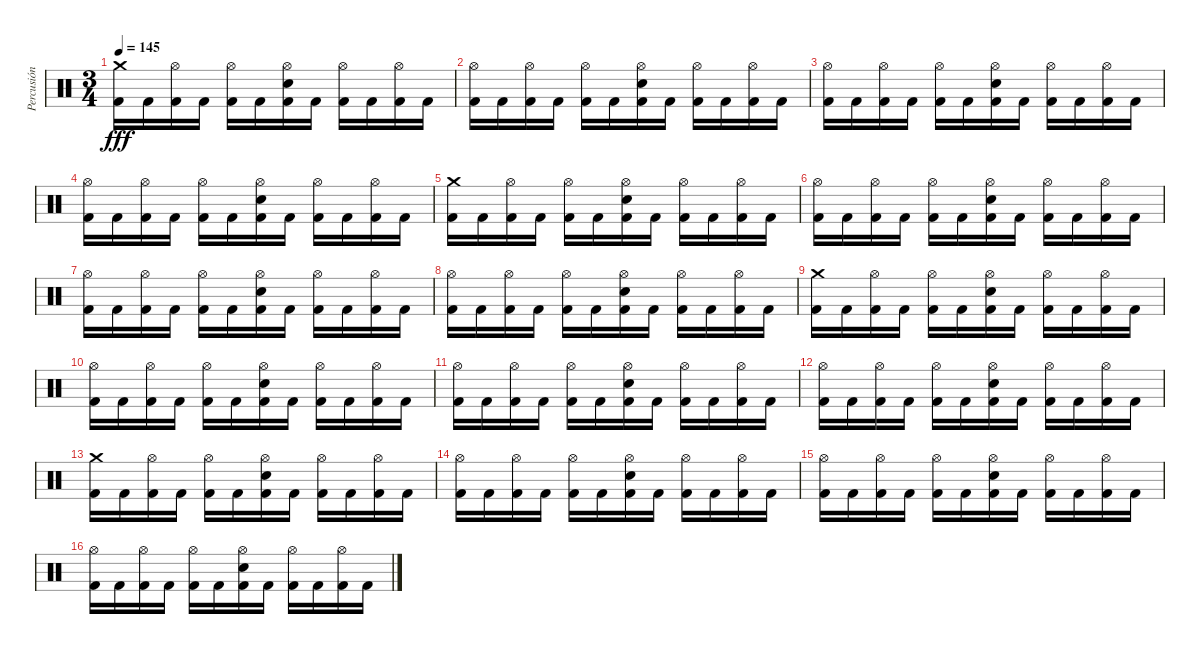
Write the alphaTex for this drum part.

\track ("Percusión" "Percusión") {instrument percussion}
\staff {score}
\articulation defaults
\ts (3 4)
\tempo 145
\clef neutral
\ks c
("Crash medium (hit)" "Kick (hit) 2").16{dy fff} "Kick (hit) 2".16 ("Hi-Hat (open)" "Kick (hit) 2").16 "Kick (hit) 2".16 ("Hi-Hat (open)" "Kick (hit) 2").16 "Kick (hit) 2".16 ("Hi-Hat (open)" "Snare (hit) 2" "Kick (hit) 2").16 "Kick (hit) 2".16 ("Hi-Hat (open)" "Kick (hit) 2").16 "Kick (hit) 2".16 ("Hi-Hat (open)" "Kick (hit) 2").16 "Kick (hit) 2".16 |
("Hi-Hat (open)" "Kick (hit) 2").16 "Kick (hit) 2".16 ("Hi-Hat (open)" "Kick (hit) 2").16 "Kick (hit) 2".16 ("Hi-Hat (open)" "Kick (hit) 2").16 "Kick (hit) 2".16 ("Hi-Hat (open)" "Snare (hit) 2" "Kick (hit) 2").16 "Kick (hit) 2".16 ("Hi-Hat (open)" "Kick (hit) 2").16 "Kick (hit) 2".16 ("Hi-Hat (open)" "Kick (hit) 2").16 "Kick (hit) 2".16 |
("Hi-Hat (open)" "Kick (hit) 2").16 "Kick (hit) 2".16 ("Hi-Hat (open)" "Kick (hit) 2").16 "Kick (hit) 2".16 ("Hi-Hat (open)" "Kick (hit) 2").16 "Kick (hit) 2".16 ("Hi-Hat (open)" "Snare (hit) 2" "Kick (hit) 2").16 "Kick (hit) 2".16 ("Hi-Hat (open)" "Kick (hit) 2").16 "Kick (hit) 2".16 ("Hi-Hat (open)" "Kick (hit) 2").16 "Kick (hit) 2".16 |
("Hi-Hat (open)" "Kick (hit) 2").16 "Kick (hit) 2".16 ("Hi-Hat (open)" "Kick (hit) 2").16 "Kick (hit) 2".16 ("Hi-Hat (open)" "Kick (hit) 2").16 "Kick (hit) 2".16 ("Hi-Hat (open)" "Snare (hit) 2" "Kick (hit) 2").16 "Kick (hit) 2".16 ("Hi-Hat (open)" "Kick (hit) 2").16 "Kick (hit) 2".16 ("Hi-Hat (open)" "Kick (hit) 2").16 "Kick (hit) 2".16 |
("Crash medium (hit)" "Kick (hit) 2").16 "Kick (hit) 2".16 ("Hi-Hat (open)" "Kick (hit) 2").16 "Kick (hit) 2".16 ("Hi-Hat (open)" "Kick (hit) 2").16 "Kick (hit) 2".16 ("Hi-Hat (open)" "Snare (hit) 2" "Kick (hit) 2").16 "Kick (hit) 2".16 ("Hi-Hat (open)" "Kick (hit) 2").16 "Kick (hit) 2".16 ("Hi-Hat (open)" "Kick (hit) 2").16 "Kick (hit) 2".16 |
("Hi-Hat (open)" "Kick (hit) 2").16 "Kick (hit) 2".16 ("Hi-Hat (open)" "Kick (hit) 2").16 "Kick (hit) 2".16 ("Hi-Hat (open)" "Kick (hit) 2").16 "Kick (hit) 2".16 ("Hi-Hat (open)" "Snare (hit) 2" "Kick (hit) 2").16 "Kick (hit) 2".16 ("Hi-Hat (open)" "Kick (hit) 2").16 "Kick (hit) 2".16 ("Hi-Hat (open)" "Kick (hit) 2").16 "Kick (hit) 2".16 |
("Hi-Hat (open)" "Kick (hit) 2").16 "Kick (hit) 2".16 ("Hi-Hat (open)" "Kick (hit) 2").16 "Kick (hit) 2".16 ("Hi-Hat (open)" "Kick (hit) 2").16 "Kick (hit) 2".16 ("Hi-Hat (open)" "Snare (hit) 2" "Kick (hit) 2").16 "Kick (hit) 2".16 ("Hi-Hat (open)" "Kick (hit) 2").16 "Kick (hit) 2".16 ("Hi-Hat (open)" "Kick (hit) 2").16 "Kick (hit) 2".16 |
("Hi-Hat (open)" "Kick (hit) 2").16 "Kick (hit) 2".16 ("Hi-Hat (open)" "Kick (hit) 2").16 "Kick (hit) 2".16 ("Hi-Hat (open)" "Kick (hit) 2").16 "Kick (hit) 2".16 ("Hi-Hat (open)" "Snare (hit) 2" "Kick (hit) 2").16 "Kick (hit) 2".16 ("Hi-Hat (open)" "Kick (hit) 2").16 "Kick (hit) 2".16 ("Hi-Hat (open)" "Kick (hit) 2").16 "Kick (hit) 2".16 |
("Crash medium (hit)" "Kick (hit) 2").16 "Kick (hit) 2".16 ("Hi-Hat (open)" "Kick (hit) 2").16 "Kick (hit) 2".16 ("Hi-Hat (open)" "Kick (hit) 2").16 "Kick (hit) 2".16 ("Hi-Hat (open)" "Snare (hit) 2" "Kick (hit) 2").16 "Kick (hit) 2".16 ("Hi-Hat (open)" "Kick (hit) 2").16 "Kick (hit) 2".16 ("Hi-Hat (open)" "Kick (hit) 2").16 "Kick (hit) 2".16 |
("Hi-Hat (open)" "Kick (hit) 2").16 "Kick (hit) 2".16 ("Hi-Hat (open)" "Kick (hit) 2").16 "Kick (hit) 2".16 ("Hi-Hat (open)" "Kick (hit) 2").16 "Kick (hit) 2".16 ("Hi-Hat (open)" "Snare (hit) 2" "Kick (hit) 2").16 "Kick (hit) 2".16 ("Hi-Hat (open)" "Kick (hit) 2").16 "Kick (hit) 2".16 ("Hi-Hat (open)" "Kick (hit) 2").16 "Kick (hit) 2".16 |
("Hi-Hat (open)" "Kick (hit) 2").16 "Kick (hit) 2".16 ("Hi-Hat (open)" "Kick (hit) 2").16 "Kick (hit) 2".16 ("Hi-Hat (open)" "Kick (hit) 2").16 "Kick (hit) 2".16 ("Hi-Hat (open)" "Snare (hit) 2" "Kick (hit) 2").16 "Kick (hit) 2".16 ("Hi-Hat (open)" "Kick (hit) 2").16 "Kick (hit) 2".16 ("Hi-Hat (open)" "Kick (hit) 2").16 "Kick (hit) 2".16 |
("Hi-Hat (open)" "Kick (hit) 2").16 "Kick (hit) 2".16 ("Hi-Hat (open)" "Kick (hit) 2").16 "Kick (hit) 2".16 ("Hi-Hat (open)" "Kick (hit) 2").16 "Kick (hit) 2".16 ("Hi-Hat (open)" "Snare (hit) 2" "Kick (hit) 2").16 "Kick (hit) 2".16 ("Hi-Hat (open)" "Kick (hit) 2").16 "Kick (hit) 2".16 ("Hi-Hat (open)" "Kick (hit) 2").16 "Kick (hit) 2".16 |
("Crash medium (hit)" "Kick (hit) 2").16 "Kick (hit) 2".16 ("Hi-Hat (open)" "Kick (hit) 2").16 "Kick (hit) 2".16 ("Hi-Hat (open)" "Kick (hit) 2").16 "Kick (hit) 2".16 ("Hi-Hat (open)" "Snare (hit) 2" "Kick (hit) 2").16 "Kick (hit) 2".16 ("Hi-Hat (open)" "Kick (hit) 2").16 "Kick (hit) 2".16 ("Hi-Hat (open)" "Kick (hit) 2").16 "Kick (hit) 2".16 |
("Hi-Hat (open)" "Kick (hit) 2").16 "Kick (hit) 2".16 ("Hi-Hat (open)" "Kick (hit) 2").16 "Kick (hit) 2".16 ("Hi-Hat (open)" "Kick (hit) 2").16 "Kick (hit) 2".16 ("Hi-Hat (open)" "Snare (hit) 2" "Kick (hit) 2").16 "Kick (hit) 2".16 ("Hi-Hat (open)" "Kick (hit) 2").16 "Kick (hit) 2".16 ("Hi-Hat (open)" "Kick (hit) 2").16 "Kick (hit) 2".16 |
("Hi-Hat (open)" "Kick (hit) 2").16 "Kick (hit) 2".16 ("Hi-Hat (open)" "Kick (hit) 2").16 "Kick (hit) 2".16 ("Hi-Hat (open)" "Kick (hit) 2").16 "Kick (hit) 2".16 ("Hi-Hat (open)" "Snare (hit) 2" "Kick (hit) 2").16 "Kick (hit) 2".16 ("Hi-Hat (open)" "Kick (hit) 2").16 "Kick (hit) 2".16 ("Hi-Hat (open)" "Kick (hit) 2").16 "Kick (hit) 2".16 |
("Hi-Hat (open)" "Kick (hit) 2").16 "Kick (hit) 2".16 ("Hi-Hat (open)" "Kick (hit) 2").16 "Kick (hit) 2".16 ("Hi-Hat (open)" "Kick (hit) 2").16 "Kick (hit) 2".16 ("Hi-Hat (open)" "Snare (hit) 2" "Kick (hit) 2").16 "Kick (hit) 2".16 ("Hi-Hat (open)" "Kick (hit) 2").16 "Kick (hit) 2".16 ("Hi-Hat (open)" "Kick (hit) 2").16 "Kick (hit) 2".16
